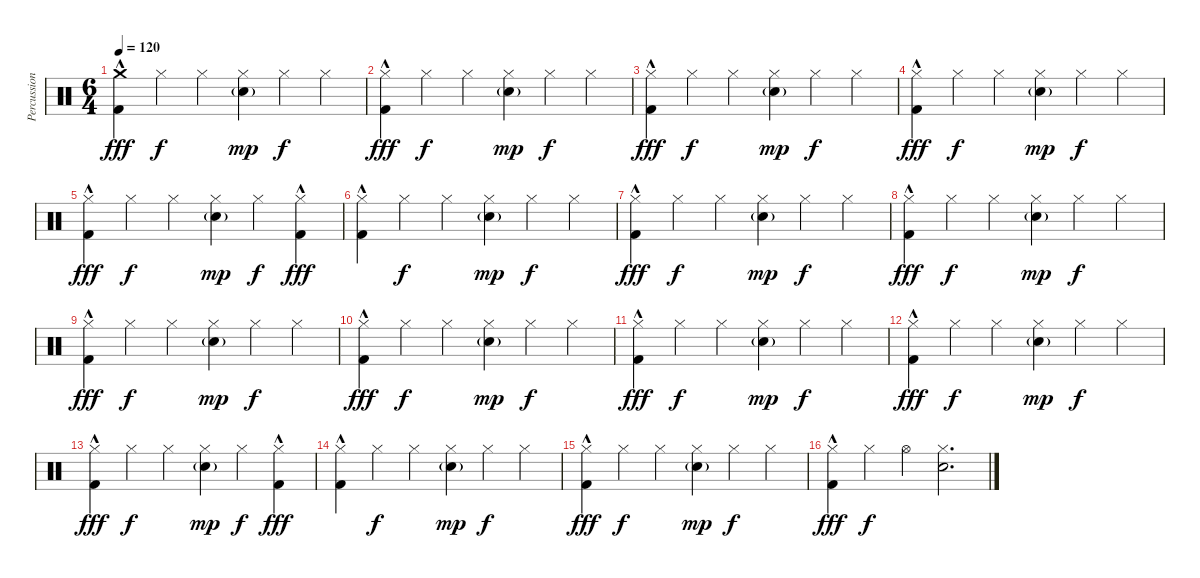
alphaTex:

\track ("Percussion" "Percussion") {instrument percussion}
\staff {score}
\articulation defaults
\ts (6 4)
\tempo 120
\clef neutral
\ks c
("Crash medium (hit)" "Kick (hit) 2"{hac}).4{dy fff} "Hi-Hat (closed)".4{dy f} "Hi-Hat (closed)".4 ("Hi-Hat (closed)" "Snare (hit) 2"{g}).4{dy mp} "Hi-Hat (closed)".4{dy f} "Hi-Hat (closed)".4 |
("Hi-Hat (closed)" "Kick (hit) 2"{hac}).4{dy fff} "Hi-Hat (closed)".4{dy f} "Hi-Hat (closed)".4 ("Hi-Hat (closed)" "Snare (hit) 2"{g}).4{dy mp} "Hi-Hat (closed)".4{dy f} "Hi-Hat (closed)".4 |
("Hi-Hat (closed)" "Kick (hit) 2"{hac}).4{dy fff} "Hi-Hat (closed)".4{dy f} "Hi-Hat (closed)".4 ("Hi-Hat (closed)" "Snare (hit) 2"{g}).4{dy mp} "Hi-Hat (closed)".4{dy f} "Hi-Hat (closed)".4 |
("Hi-Hat (closed)" "Kick (hit) 2"{hac}).4{dy fff} "Hi-Hat (closed)".4{dy f} "Hi-Hat (closed)".4 ("Hi-Hat (closed)" "Snare (hit) 2"{g}).4{dy mp} "Hi-Hat (closed)".4{dy f} "Hi-Hat (closed)".4 |
("Hi-Hat (closed)" "Kick (hit) 2"{hac}).4{dy fff} "Hi-Hat (closed)".4{dy f} "Hi-Hat (closed)".4 ("Hi-Hat (closed)" "Snare (hit) 2"{g}).4{dy mp} "Hi-Hat (closed)".4{dy f} ("Hi-Hat (closed)" "Kick (hit) 2"{hac}).4{dy fff} |
("Hi-Hat (closed)" "Kick (hit) 2"{hac}).4 "Hi-Hat (closed)".4{dy f} "Hi-Hat (closed)".4 ("Hi-Hat (closed)" "Snare (hit) 2"{g}).4{dy mp} "Hi-Hat (closed)".4{dy f} "Hi-Hat (closed)".4 |
("Hi-Hat (closed)" "Kick (hit) 2"{hac}).4{dy fff} "Hi-Hat (closed)".4{dy f} "Hi-Hat (closed)".4 ("Hi-Hat (closed)" "Snare (hit) 2"{g}).4{dy mp} "Hi-Hat (closed)".4{dy f} "Hi-Hat (closed)".4 |
("Hi-Hat (closed)" "Kick (hit) 2"{hac}).4{dy fff} "Hi-Hat (closed)".4{dy f} "Hi-Hat (closed)".4 ("Hi-Hat (closed)" "Snare (hit) 2"{g}).4{dy mp} "Hi-Hat (closed)".4{dy f} "Hi-Hat (closed)".4 |
("Hi-Hat (closed)" "Kick (hit) 2"{hac}).4{dy fff} "Hi-Hat (closed)".4{dy f} "Hi-Hat (closed)".4 ("Hi-Hat (closed)" "Snare (hit) 2"{g}).4{dy mp} "Hi-Hat (closed)".4{dy f} "Hi-Hat (closed)".4 |
("Hi-Hat (closed)" "Kick (hit) 2"{hac}).4{dy fff} "Hi-Hat (closed)".4{dy f} "Hi-Hat (closed)".4 ("Hi-Hat (closed)" "Snare (hit) 2"{g}).4{dy mp} "Hi-Hat (closed)".4{dy f} "Hi-Hat (closed)".4 |
("Hi-Hat (closed)" "Kick (hit) 2"{hac}).4{dy fff} "Hi-Hat (closed)".4{dy f} "Hi-Hat (closed)".4 ("Hi-Hat (closed)" "Snare (hit) 2"{g}).4{dy mp} "Hi-Hat (closed)".4{dy f} "Hi-Hat (closed)".4 |
("Hi-Hat (closed)" "Kick (hit) 2"{hac}).4{dy fff} "Hi-Hat (closed)".4{dy f} "Hi-Hat (closed)".4 ("Hi-Hat (closed)" "Snare (hit) 2"{g}).4{dy mp} "Hi-Hat (closed)".4{dy f} "Hi-Hat (closed)".4 |
("Hi-Hat (closed)" "Kick (hit) 2"{hac}).4{dy fff} "Hi-Hat (closed)".4{dy f} "Hi-Hat (closed)".4 ("Hi-Hat (closed)" "Snare (hit) 2"{g}).4{dy mp} "Hi-Hat (closed)".4{dy f} ("Hi-Hat (closed)" "Kick (hit) 2"{hac}).4{dy fff} |
("Hi-Hat (closed)" "Kick (hit) 2"{hac}).4 "Hi-Hat (closed)".4{dy f} "Hi-Hat (closed)".4 ("Hi-Hat (closed)" "Snare (hit) 2"{g}).4{dy mp} "Hi-Hat (closed)".4{dy f} "Hi-Hat (closed)".4 |
("Hi-Hat (closed)" "Kick (hit) 2"{hac}).4{dy fff} "Hi-Hat (closed)".4{dy f} "Hi-Hat (closed)".4 ("Hi-Hat (closed)" "Snare (hit) 2"{g}).4{dy mp} "Hi-Hat (closed)".4{dy f} "Hi-Hat (closed)".4 |
("Hi-Hat (closed)" "Kick (hit) 2"{hac}).4{dy fff} "Hi-Hat (closed)".4{dy f} "Hi-Hat (open)".4 ("Hi-Hat (closed)" "Snare (hit) 2").2{d}
